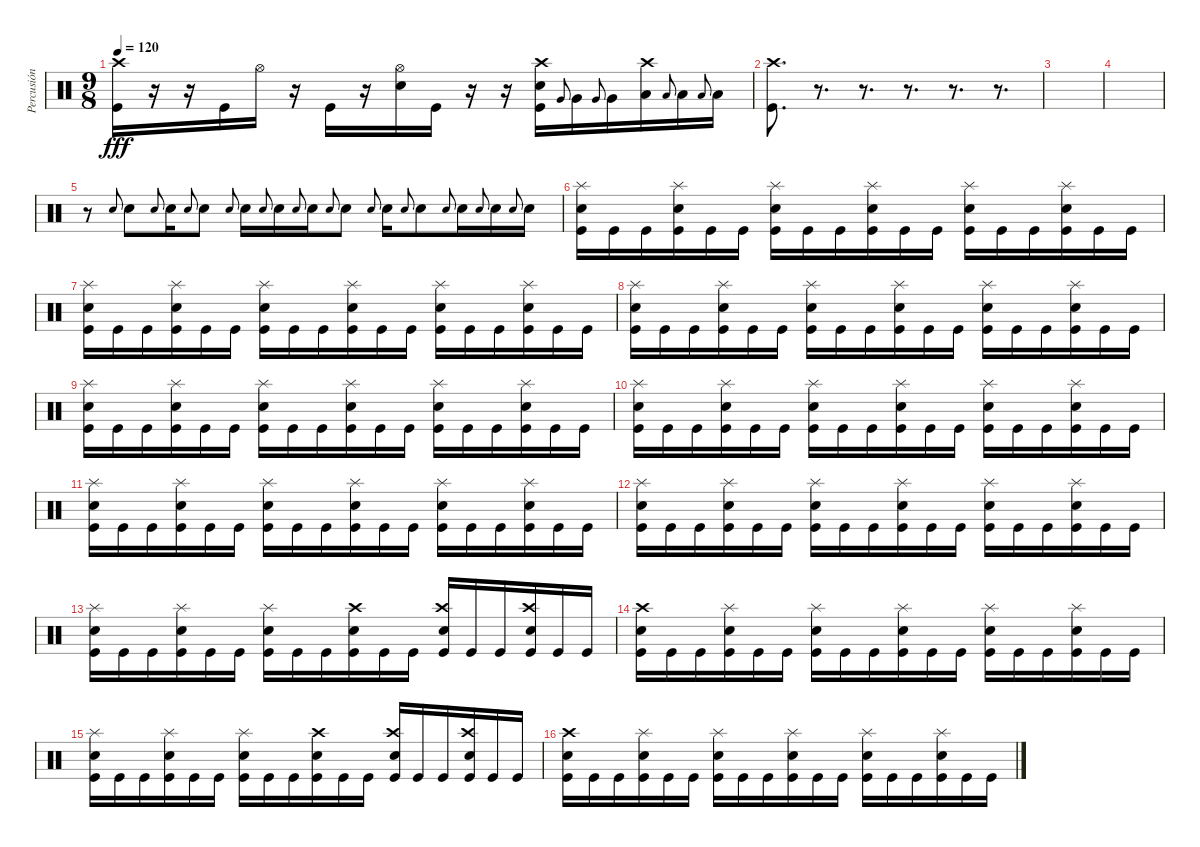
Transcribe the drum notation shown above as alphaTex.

\track ("Percusión" "Percusión") {instrument percussion}
\staff {score}
\articulation defaults
\ts (9 8)
\tempo 120
\clef neutral
\ks c
("Kick (hit)" "Crash high (hit)").16{dy fff} r.16 r.16 "Kick (hit)".16 "Hi-Hat (open)".16 r.16 "Kick (hit)".16 r.16 ("Hi-Hat (open)" "Snare (hit) 2").16 "Kick (hit)".16 r.16 r.16 ("Crash high (hit)" "Snare (hit) 2" "Kick (hit)").16 "Very Low Tom (hit)".8{gr onbeat} "Very Low Tom (hit)".16 "Very Low Tom (hit)".8{gr onbeat} "Very Low Tom (hit)".16 ("Crash high (hit)" "Low Floor Tom (hit)").16 "Low Floor Tom (hit)".8{gr onbeat} "Low Floor Tom (hit)".16 "Low Floor Tom (hit)".8{gr onbeat} "Low Floor Tom (hit)".16 |
("Crash high (hit)" "Kick (hit)").8{d} r.8{d} r.8{d} r.8{d} r.8{d} r.8{d} |
|
|
r.8 "Snare (hit) 2".8{gr onbeat} "Snare (hit) 2".8 "Snare (hit) 2".8{gr onbeat} "Snare (hit) 2".16 "Snare (hit) 2".8{gr onbeat} "Snare (hit) 2".8 "Snare (hit) 2".8{gr onbeat} "Snare (hit) 2".16 "Snare (hit) 2".8{gr onbeat} "Snare (hit) 2".16 "Snare (hit) 2".8{gr onbeat} "Snare (hit) 2".16 "Snare (hit) 2".8{gr onbeat} "Snare (hit) 2".8 "Snare (hit) 2".8{gr onbeat} "Snare (hit) 2".16 "Snare (hit) 2".8{gr onbeat} "Snare (hit) 2".8 "Snare (hit) 2".8{gr onbeat} "Snare (hit) 2".16 "Snare (hit) 2".8{gr onbeat} "Snare (hit) 2".16 "Snare (hit) 2".8{gr onbeat} "Snare (hit) 2".16 |
("Splash (hit)" "Snare (hit) 2" "Kick (hit)").16 "Kick (hit)".16 "Kick (hit)".16 ("Splash (hit)" "Snare (hit) 2" "Kick (hit)").16 "Kick (hit)".16 "Kick (hit)".16 ("Splash (hit)" "Snare (hit) 2" "Kick (hit)").16 "Kick (hit)".16 "Kick (hit)".16 ("Splash (hit)" "Snare (hit) 2" "Kick (hit)").16 "Kick (hit)".16 "Kick (hit)".16 ("Splash (hit)" "Snare (hit) 2" "Kick (hit)").16 "Kick (hit)".16 "Kick (hit)".16 ("Splash (hit)" "Snare (hit) 2" "Kick (hit)").16 "Kick (hit)".16 "Kick (hit)".16 |
("Splash (hit)" "Snare (hit) 2" "Kick (hit)").16 "Kick (hit)".16 "Kick (hit)".16 ("Splash (hit)" "Snare (hit) 2" "Kick (hit)").16 "Kick (hit)".16 "Kick (hit)".16 ("Splash (hit)" "Snare (hit) 2" "Kick (hit)").16 "Kick (hit)".16 "Kick (hit)".16 ("Splash (hit)" "Snare (hit) 2" "Kick (hit)").16 "Kick (hit)".16 "Kick (hit)".16 ("Splash (hit)" "Snare (hit) 2" "Kick (hit)").16 "Kick (hit)".16 "Kick (hit)".16 ("Splash (hit)" "Snare (hit) 2" "Kick (hit)").16 "Kick (hit)".16 "Kick (hit)".16 |
("Splash (hit)" "Snare (hit) 2" "Kick (hit)").16 "Kick (hit)".16 "Kick (hit)".16 ("Splash (hit)" "Snare (hit) 2" "Kick (hit)").16 "Kick (hit)".16 "Kick (hit)".16 ("Splash (hit)" "Snare (hit) 2" "Kick (hit)").16 "Kick (hit)".16 "Kick (hit)".16 ("Splash (hit)" "Snare (hit) 2" "Kick (hit)").16 "Kick (hit)".16 "Kick (hit)".16 ("Splash (hit)" "Snare (hit) 2" "Kick (hit)").16 "Kick (hit)".16 "Kick (hit)".16 ("Splash (hit)" "Snare (hit) 2" "Kick (hit)").16 "Kick (hit)".16 "Kick (hit)".16 |
("Splash (hit)" "Snare (hit) 2" "Kick (hit)").16 "Kick (hit)".16 "Kick (hit)".16 ("Splash (hit)" "Snare (hit) 2" "Kick (hit)").16 "Kick (hit)".16 "Kick (hit)".16 ("Splash (hit)" "Snare (hit) 2" "Kick (hit)").16 "Kick (hit)".16 "Kick (hit)".16 ("Splash (hit)" "Snare (hit) 2" "Kick (hit)").16 "Kick (hit)".16 "Kick (hit)".16 ("Splash (hit)" "Snare (hit) 2" "Kick (hit)").16 "Kick (hit)".16 "Kick (hit)".16 ("Splash (hit)" "Snare (hit) 2" "Kick (hit)").16 "Kick (hit)".16 "Kick (hit)".16 |
("Splash (hit)" "Snare (hit) 2" "Kick (hit)").16 "Kick (hit)".16 "Kick (hit)".16 ("Splash (hit)" "Snare (hit) 2" "Kick (hit)").16 "Kick (hit)".16 "Kick (hit)".16 ("Splash (hit)" "Snare (hit) 2" "Kick (hit)").16 "Kick (hit)".16 "Kick (hit)".16 ("Splash (hit)" "Snare (hit) 2" "Kick (hit)").16 "Kick (hit)".16 "Kick (hit)".16 ("Splash (hit)" "Snare (hit) 2" "Kick (hit)").16 "Kick (hit)".16 "Kick (hit)".16 ("Splash (hit)" "Snare (hit) 2" "Kick (hit)").16 "Kick (hit)".16 "Kick (hit)".16 |
("Splash (hit)" "Snare (hit) 2" "Kick (hit)").16 "Kick (hit)".16 "Kick (hit)".16 ("Splash (hit)" "Snare (hit) 2" "Kick (hit)").16 "Kick (hit)".16 "Kick (hit)".16 ("Splash (hit)" "Snare (hit) 2" "Kick (hit)").16 "Kick (hit)".16 "Kick (hit)".16 ("Splash (hit)" "Snare (hit) 2" "Kick (hit)").16 "Kick (hit)".16 "Kick (hit)".16 ("Splash (hit)" "Snare (hit) 2" "Kick (hit)").16 "Kick (hit)".16 "Kick (hit)".16 ("Splash (hit)" "Snare (hit) 2" "Kick (hit)").16 "Kick (hit)".16 "Kick (hit)".16 |
("Splash (hit)" "Snare (hit) 2" "Kick (hit)").16 "Kick (hit)".16 "Kick (hit)".16 ("Splash (hit)" "Snare (hit) 2" "Kick (hit)").16 "Kick (hit)".16 "Kick (hit)".16 ("Splash (hit)" "Snare (hit) 2" "Kick (hit)").16 "Kick (hit)".16 "Kick (hit)".16 ("Splash (hit)" "Snare (hit) 2" "Kick (hit)").16 "Kick (hit)".16 "Kick (hit)".16 ("Splash (hit)" "Snare (hit) 2" "Kick (hit)").16 "Kick (hit)".16 "Kick (hit)".16 ("Splash (hit)" "Snare (hit) 2" "Kick (hit)").16 "Kick (hit)".16 "Kick (hit)".16 |
("Splash (hit)" "Snare (hit) 2" "Kick (hit)").16 "Kick (hit)".16 "Kick (hit)".16 ("Splash (hit)" "Snare (hit) 2" "Kick (hit)").16 "Kick (hit)".16 "Kick (hit)".16 ("Splash (hit)" "Snare (hit) 2" "Kick (hit)").16 "Kick (hit)".16 "Kick (hit)".16 ("Crash high (hit)" "Snare (hit) 2" "Kick (hit)").16 "Kick (hit)".16 "Kick (hit)".16 ("Crash high (hit)" "Snare (hit) 2" "Kick (hit)").16 "Kick (hit)".16 "Kick (hit)".16 ("Crash high (hit)" "Snare (hit) 2" "Kick (hit)").16 "Kick (hit)".16 "Kick (hit)".16 |
("Crash high (hit)" "Snare (hit) 2" "Kick (hit)").16 "Kick (hit)".16 "Kick (hit)".16 ("Splash (hit)" "Snare (hit) 2" "Kick (hit)").16 "Kick (hit)".16 "Kick (hit)".16 ("Splash (hit)" "Snare (hit) 2" "Kick (hit)").16 "Kick (hit)".16 "Kick (hit)".16 ("Splash (hit)" "Snare (hit) 2" "Kick (hit)").16 "Kick (hit)".16 "Kick (hit)".16 ("Splash (hit)" "Snare (hit) 2" "Kick (hit)").16 "Kick (hit)".16 "Kick (hit)".16 ("Splash (hit)" "Snare (hit) 2" "Kick (hit)").16 "Kick (hit)".16 "Kick (hit)".16 |
("Splash (hit)" "Snare (hit) 2" "Kick (hit)").16 "Kick (hit)".16 "Kick (hit)".16 ("Splash (hit)" "Snare (hit) 2" "Kick (hit)").16 "Kick (hit)".16 "Kick (hit)".16 ("Splash (hit)" "Snare (hit) 2" "Kick (hit)").16 "Kick (hit)".16 "Kick (hit)".16 ("Crash high (hit)" "Snare (hit) 2" "Kick (hit)").16 "Kick (hit)".16 "Kick (hit)".16 ("Crash high (hit)" "Snare (hit) 2" "Kick (hit)").16 "Kick (hit)".16 "Kick (hit)".16 ("Crash high (hit)" "Snare (hit) 2" "Kick (hit)").16 "Kick (hit)".16 "Kick (hit)".16 |
("Crash high (hit)" "Snare (hit) 2" "Kick (hit)").16 "Kick (hit)".16 "Kick (hit)".16 ("Splash (hit)" "Snare (hit) 2" "Kick (hit)").16 "Kick (hit)".16 "Kick (hit)".16 ("Splash (hit)" "Snare (hit) 2" "Kick (hit)").16 "Kick (hit)".16 "Kick (hit)".16 ("Splash (hit)" "Snare (hit) 2" "Kick (hit)").16 "Kick (hit)".16 "Kick (hit)".16 ("Splash (hit)" "Snare (hit) 2" "Kick (hit)").16 "Kick (hit)".16 "Kick (hit)".16 ("Splash (hit)" "Snare (hit) 2" "Kick (hit)").16 "Kick (hit)".16 "Kick (hit)".16
